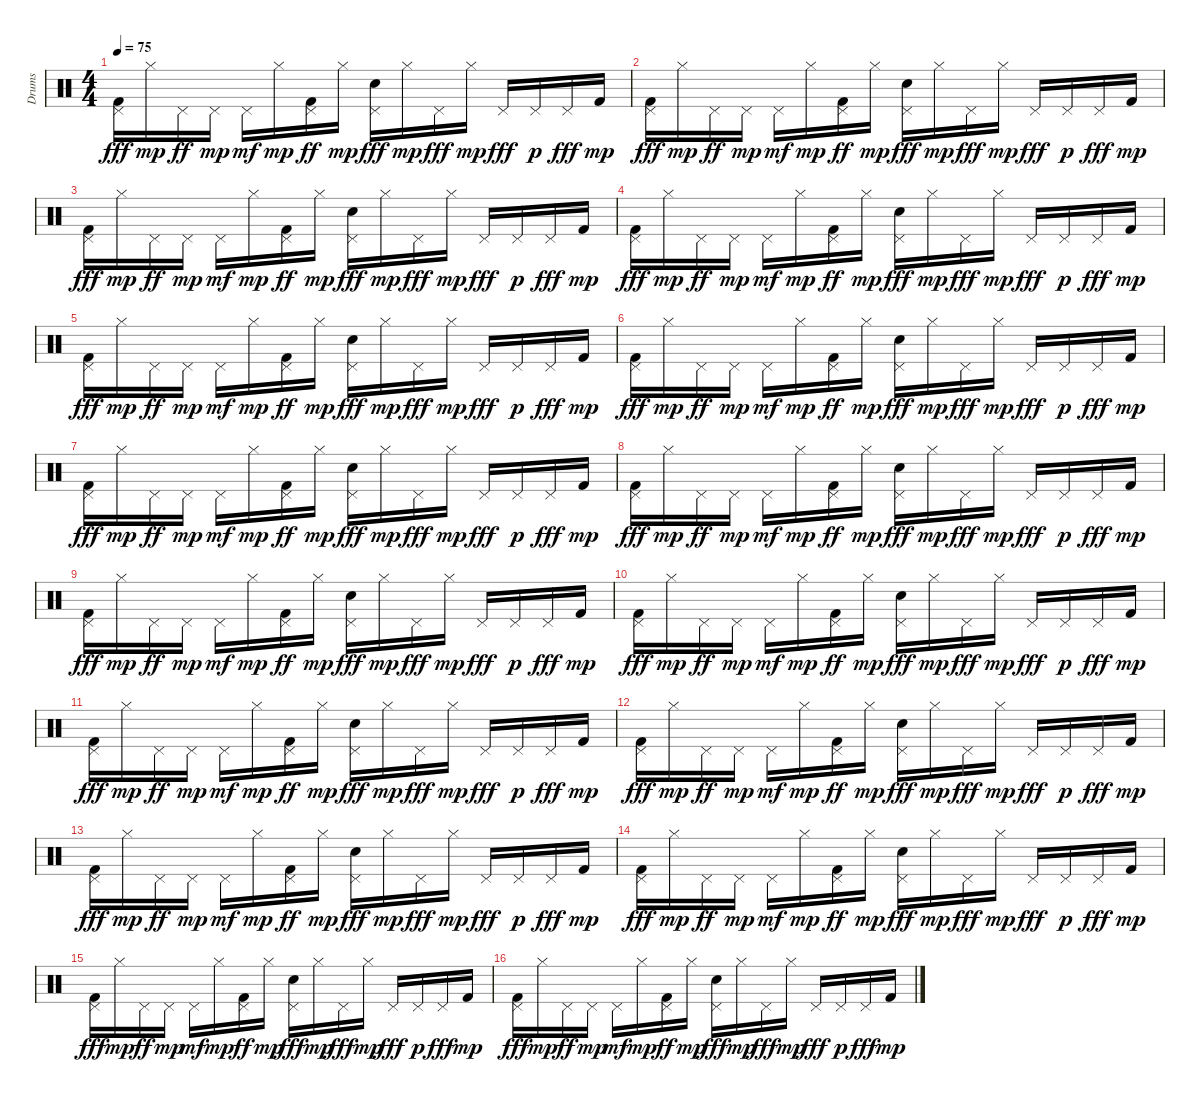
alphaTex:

\track ("Drums" "Drums") {instrument percussion}
\staff {score}
\articulation defaults
\ts (4 4)
\tempo 75
\clef neutral
\ks c
("Kick (hit) 2" "Pedal Hi-Hat (hit)").16{dy fff} "Hi-Hat (closed)".16{dy mp} "Pedal Hi-Hat (hit)".16{dy ff} "Pedal Hi-Hat (hit)".16{dy mp} "Pedal Hi-Hat (hit)".16{dy mf} "Hi-Hat (closed)".16{dy mp} ("Kick (hit) 2" "Pedal Hi-Hat (hit)").16{dy ff} "Hi-Hat (closed)".16{dy mp} ("Snare (hit) 2" "Pedal Hi-Hat (hit)").16{dy fff} "Hi-Hat (closed)".16{dy mp} "Pedal Hi-Hat (hit)".16{dy fff} "Hi-Hat (closed)".16{dy mp} "Pedal Hi-Hat (hit)".16{dy fff} "Pedal Hi-Hat (hit)".16{dy p} "Pedal Hi-Hat (hit)".16{dy fff} "Kick (hit) 2".16{dy mp} |
("Kick (hit) 2" "Pedal Hi-Hat (hit)").16{dy fff} "Hi-Hat (closed)".16{dy mp} "Pedal Hi-Hat (hit)".16{dy ff} "Pedal Hi-Hat (hit)".16{dy mp} "Pedal Hi-Hat (hit)".16{dy mf} "Hi-Hat (closed)".16{dy mp} ("Kick (hit) 2" "Pedal Hi-Hat (hit)").16{dy ff} "Hi-Hat (closed)".16{dy mp} ("Snare (hit) 2" "Pedal Hi-Hat (hit)").16{dy fff} "Hi-Hat (closed)".16{dy mp} "Pedal Hi-Hat (hit)".16{dy fff} "Hi-Hat (closed)".16{dy mp} "Pedal Hi-Hat (hit)".16{dy fff} "Pedal Hi-Hat (hit)".16{dy p} "Pedal Hi-Hat (hit)".16{dy fff} "Kick (hit) 2".16{dy mp} |
("Kick (hit) 2" "Pedal Hi-Hat (hit)").16{dy fff} "Hi-Hat (closed)".16{dy mp} "Pedal Hi-Hat (hit)".16{dy ff} "Pedal Hi-Hat (hit)".16{dy mp} "Pedal Hi-Hat (hit)".16{dy mf} "Hi-Hat (closed)".16{dy mp} ("Kick (hit) 2" "Pedal Hi-Hat (hit)").16{dy ff} "Hi-Hat (closed)".16{dy mp} ("Snare (hit) 2" "Pedal Hi-Hat (hit)").16{dy fff} "Hi-Hat (closed)".16{dy mp} "Pedal Hi-Hat (hit)".16{dy fff} "Hi-Hat (closed)".16{dy mp} "Pedal Hi-Hat (hit)".16{dy fff} "Pedal Hi-Hat (hit)".16{dy p} "Pedal Hi-Hat (hit)".16{dy fff} "Kick (hit) 2".16{dy mp} |
("Kick (hit) 2" "Pedal Hi-Hat (hit)").16{dy fff} "Hi-Hat (closed)".16{dy mp} "Pedal Hi-Hat (hit)".16{dy ff} "Pedal Hi-Hat (hit)".16{dy mp} "Pedal Hi-Hat (hit)".16{dy mf} "Hi-Hat (closed)".16{dy mp} ("Kick (hit) 2" "Pedal Hi-Hat (hit)").16{dy ff} "Hi-Hat (closed)".16{dy mp} ("Snare (hit) 2" "Pedal Hi-Hat (hit)").16{dy fff} "Hi-Hat (closed)".16{dy mp} "Pedal Hi-Hat (hit)".16{dy fff} "Hi-Hat (closed)".16{dy mp} "Pedal Hi-Hat (hit)".16{dy fff} "Pedal Hi-Hat (hit)".16{dy p} "Pedal Hi-Hat (hit)".16{dy fff} "Kick (hit) 2".16{dy mp} |
("Kick (hit) 2" "Pedal Hi-Hat (hit)").16{dy fff} "Hi-Hat (closed)".16{dy mp} "Pedal Hi-Hat (hit)".16{dy ff} "Pedal Hi-Hat (hit)".16{dy mp} "Pedal Hi-Hat (hit)".16{dy mf} "Hi-Hat (closed)".16{dy mp} ("Kick (hit) 2" "Pedal Hi-Hat (hit)").16{dy ff} "Hi-Hat (closed)".16{dy mp} ("Snare (hit) 2" "Pedal Hi-Hat (hit)").16{dy fff} "Hi-Hat (closed)".16{dy mp} "Pedal Hi-Hat (hit)".16{dy fff} "Hi-Hat (closed)".16{dy mp} "Pedal Hi-Hat (hit)".16{dy fff} "Pedal Hi-Hat (hit)".16{dy p} "Pedal Hi-Hat (hit)".16{dy fff} "Kick (hit) 2".16{dy mp} |
("Kick (hit) 2" "Pedal Hi-Hat (hit)").16{dy fff} "Hi-Hat (closed)".16{dy mp} "Pedal Hi-Hat (hit)".16{dy ff} "Pedal Hi-Hat (hit)".16{dy mp} "Pedal Hi-Hat (hit)".16{dy mf} "Hi-Hat (closed)".16{dy mp} ("Kick (hit) 2" "Pedal Hi-Hat (hit)").16{dy ff} "Hi-Hat (closed)".16{dy mp} ("Snare (hit) 2" "Pedal Hi-Hat (hit)").16{dy fff} "Hi-Hat (closed)".16{dy mp} "Pedal Hi-Hat (hit)".16{dy fff} "Hi-Hat (closed)".16{dy mp} "Pedal Hi-Hat (hit)".16{dy fff} "Pedal Hi-Hat (hit)".16{dy p} "Pedal Hi-Hat (hit)".16{dy fff} "Kick (hit) 2".16{dy mp} |
("Kick (hit) 2" "Pedal Hi-Hat (hit)").16{dy fff} "Hi-Hat (closed)".16{dy mp} "Pedal Hi-Hat (hit)".16{dy ff} "Pedal Hi-Hat (hit)".16{dy mp} "Pedal Hi-Hat (hit)".16{dy mf} "Hi-Hat (closed)".16{dy mp} ("Kick (hit) 2" "Pedal Hi-Hat (hit)").16{dy ff} "Hi-Hat (closed)".16{dy mp} ("Snare (hit) 2" "Pedal Hi-Hat (hit)").16{dy fff} "Hi-Hat (closed)".16{dy mp} "Pedal Hi-Hat (hit)".16{dy fff} "Hi-Hat (closed)".16{dy mp} "Pedal Hi-Hat (hit)".16{dy fff} "Pedal Hi-Hat (hit)".16{dy p} "Pedal Hi-Hat (hit)".16{dy fff} "Kick (hit) 2".16{dy mp} |
("Kick (hit) 2" "Pedal Hi-Hat (hit)").16{dy fff} "Hi-Hat (closed)".16{dy mp} "Pedal Hi-Hat (hit)".16{dy ff} "Pedal Hi-Hat (hit)".16{dy mp} "Pedal Hi-Hat (hit)".16{dy mf} "Hi-Hat (closed)".16{dy mp} ("Kick (hit) 2" "Pedal Hi-Hat (hit)").16{dy ff} "Hi-Hat (closed)".16{dy mp} ("Snare (hit) 2" "Pedal Hi-Hat (hit)").16{dy fff} "Hi-Hat (closed)".16{dy mp} "Pedal Hi-Hat (hit)".16{dy fff} "Hi-Hat (closed)".16{dy mp} "Pedal Hi-Hat (hit)".16{dy fff} "Pedal Hi-Hat (hit)".16{dy p} "Pedal Hi-Hat (hit)".16{dy fff} "Kick (hit) 2".16{dy mp} |
("Kick (hit) 2" "Pedal Hi-Hat (hit)").16{dy fff} "Hi-Hat (closed)".16{dy mp} "Pedal Hi-Hat (hit)".16{dy ff} "Pedal Hi-Hat (hit)".16{dy mp} "Pedal Hi-Hat (hit)".16{dy mf} "Hi-Hat (closed)".16{dy mp} ("Kick (hit) 2" "Pedal Hi-Hat (hit)").16{dy ff} "Hi-Hat (closed)".16{dy mp} ("Snare (hit) 2" "Pedal Hi-Hat (hit)").16{dy fff} "Hi-Hat (closed)".16{dy mp} "Pedal Hi-Hat (hit)".16{dy fff} "Hi-Hat (closed)".16{dy mp} "Pedal Hi-Hat (hit)".16{dy fff} "Pedal Hi-Hat (hit)".16{dy p} "Pedal Hi-Hat (hit)".16{dy fff} "Kick (hit) 2".16{dy mp} |
("Kick (hit) 2" "Pedal Hi-Hat (hit)").16{dy fff} "Hi-Hat (closed)".16{dy mp} "Pedal Hi-Hat (hit)".16{dy ff} "Pedal Hi-Hat (hit)".16{dy mp} "Pedal Hi-Hat (hit)".16{dy mf} "Hi-Hat (closed)".16{dy mp} ("Kick (hit) 2" "Pedal Hi-Hat (hit)").16{dy ff} "Hi-Hat (closed)".16{dy mp} ("Snare (hit) 2" "Pedal Hi-Hat (hit)").16{dy fff} "Hi-Hat (closed)".16{dy mp} "Pedal Hi-Hat (hit)".16{dy fff} "Hi-Hat (closed)".16{dy mp} "Pedal Hi-Hat (hit)".16{dy fff} "Pedal Hi-Hat (hit)".16{dy p} "Pedal Hi-Hat (hit)".16{dy fff} "Kick (hit) 2".16{dy mp} |
("Kick (hit) 2" "Pedal Hi-Hat (hit)").16{dy fff} "Hi-Hat (closed)".16{dy mp} "Pedal Hi-Hat (hit)".16{dy ff} "Pedal Hi-Hat (hit)".16{dy mp} "Pedal Hi-Hat (hit)".16{dy mf} "Hi-Hat (closed)".16{dy mp} ("Kick (hit) 2" "Pedal Hi-Hat (hit)").16{dy ff} "Hi-Hat (closed)".16{dy mp} ("Snare (hit) 2" "Pedal Hi-Hat (hit)").16{dy fff} "Hi-Hat (closed)".16{dy mp} "Pedal Hi-Hat (hit)".16{dy fff} "Hi-Hat (closed)".16{dy mp} "Pedal Hi-Hat (hit)".16{dy fff} "Pedal Hi-Hat (hit)".16{dy p} "Pedal Hi-Hat (hit)".16{dy fff} "Kick (hit) 2".16{dy mp} |
("Kick (hit) 2" "Pedal Hi-Hat (hit)").16{dy fff} "Hi-Hat (closed)".16{dy mp} "Pedal Hi-Hat (hit)".16{dy ff} "Pedal Hi-Hat (hit)".16{dy mp} "Pedal Hi-Hat (hit)".16{dy mf} "Hi-Hat (closed)".16{dy mp} ("Kick (hit) 2" "Pedal Hi-Hat (hit)").16{dy ff} "Hi-Hat (closed)".16{dy mp} ("Snare (hit) 2" "Pedal Hi-Hat (hit)").16{dy fff} "Hi-Hat (closed)".16{dy mp} "Pedal Hi-Hat (hit)".16{dy fff} "Hi-Hat (closed)".16{dy mp} "Pedal Hi-Hat (hit)".16{dy fff} "Pedal Hi-Hat (hit)".16{dy p} "Pedal Hi-Hat (hit)".16{dy fff} "Kick (hit) 2".16{dy mp} |
("Kick (hit) 2" "Pedal Hi-Hat (hit)").16{dy fff} "Hi-Hat (closed)".16{dy mp} "Pedal Hi-Hat (hit)".16{dy ff} "Pedal Hi-Hat (hit)".16{dy mp} "Pedal Hi-Hat (hit)".16{dy mf} "Hi-Hat (closed)".16{dy mp} ("Kick (hit) 2" "Pedal Hi-Hat (hit)").16{dy ff} "Hi-Hat (closed)".16{dy mp} ("Snare (hit) 2" "Pedal Hi-Hat (hit)").16{dy fff} "Hi-Hat (closed)".16{dy mp} "Pedal Hi-Hat (hit)".16{dy fff} "Hi-Hat (closed)".16{dy mp} "Pedal Hi-Hat (hit)".16{dy fff} "Pedal Hi-Hat (hit)".16{dy p} "Pedal Hi-Hat (hit)".16{dy fff} "Kick (hit) 2".16{dy mp} |
("Kick (hit) 2" "Pedal Hi-Hat (hit)").16{dy fff} "Hi-Hat (closed)".16{dy mp} "Pedal Hi-Hat (hit)".16{dy ff} "Pedal Hi-Hat (hit)".16{dy mp} "Pedal Hi-Hat (hit)".16{dy mf} "Hi-Hat (closed)".16{dy mp} ("Kick (hit) 2" "Pedal Hi-Hat (hit)").16{dy ff} "Hi-Hat (closed)".16{dy mp} ("Snare (hit) 2" "Pedal Hi-Hat (hit)").16{dy fff} "Hi-Hat (closed)".16{dy mp} "Pedal Hi-Hat (hit)".16{dy fff} "Hi-Hat (closed)".16{dy mp} "Pedal Hi-Hat (hit)".16{dy fff} "Pedal Hi-Hat (hit)".16{dy p} "Pedal Hi-Hat (hit)".16{dy fff} "Kick (hit) 2".16{dy mp} |
("Kick (hit) 2" "Pedal Hi-Hat (hit)").16{dy fff} "Hi-Hat (closed)".16{dy mp} "Pedal Hi-Hat (hit)".16{dy ff} "Pedal Hi-Hat (hit)".16{dy mp} "Pedal Hi-Hat (hit)".16{dy mf} "Hi-Hat (closed)".16{dy mp} ("Kick (hit) 2" "Pedal Hi-Hat (hit)").16{dy ff} "Hi-Hat (closed)".16{dy mp} ("Snare (hit) 2" "Pedal Hi-Hat (hit)").16{dy fff} "Hi-Hat (closed)".16{dy mp} "Pedal Hi-Hat (hit)".16{dy fff} "Hi-Hat (closed)".16{dy mp} "Pedal Hi-Hat (hit)".16{dy fff} "Pedal Hi-Hat (hit)".16{dy p} "Pedal Hi-Hat (hit)".16{dy fff} "Kick (hit) 2".16{dy mp} |
("Kick (hit) 2" "Pedal Hi-Hat (hit)").16{dy fff} "Hi-Hat (closed)".16{dy mp} "Pedal Hi-Hat (hit)".16{dy ff} "Pedal Hi-Hat (hit)".16{dy mp} "Pedal Hi-Hat (hit)".16{dy mf} "Hi-Hat (closed)".16{dy mp} ("Kick (hit) 2" "Pedal Hi-Hat (hit)").16{dy ff} "Hi-Hat (closed)".16{dy mp} ("Snare (hit) 2" "Pedal Hi-Hat (hit)").16{dy fff} "Hi-Hat (closed)".16{dy mp} "Pedal Hi-Hat (hit)".16{dy fff} "Hi-Hat (closed)".16{dy mp} "Pedal Hi-Hat (hit)".16{dy fff} "Pedal Hi-Hat (hit)".16{dy p} "Pedal Hi-Hat (hit)".16{dy fff} "Kick (hit) 2".16{dy mp}
